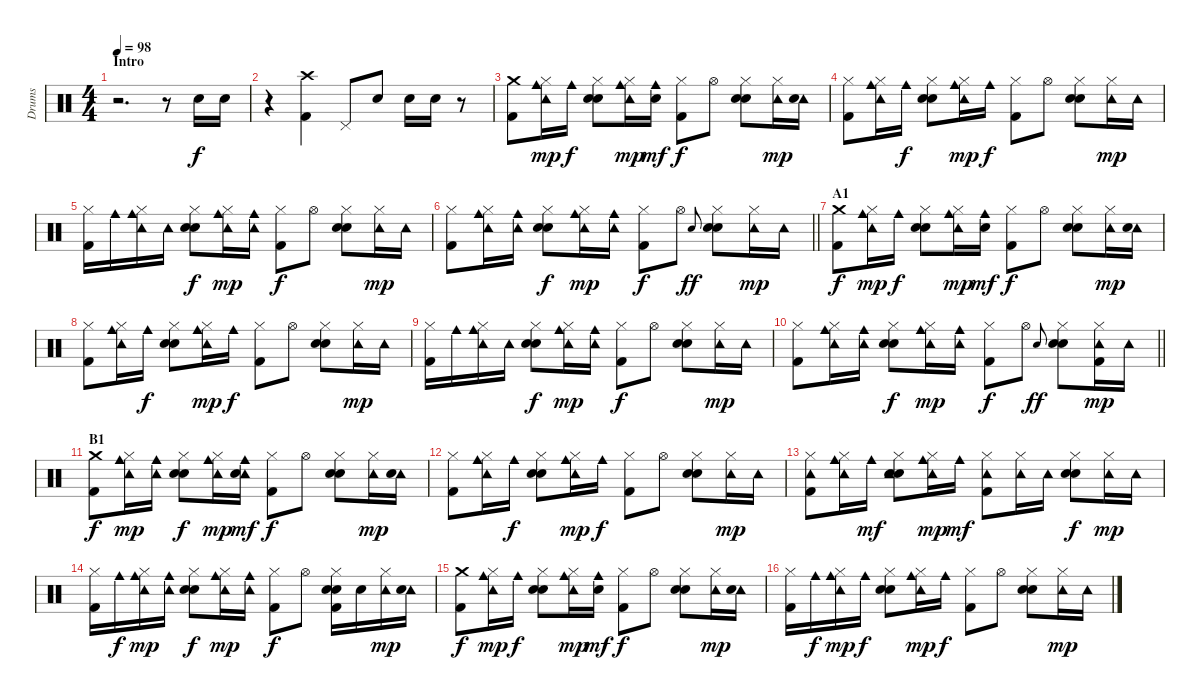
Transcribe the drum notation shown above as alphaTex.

\track ("Drums" "Drums") {instrument percussion}
\staff {score}
\articulation defaults
\ts (4 4)
\section ("" "Intro")
\tempo 98
\clef neutral
\ks c
r.2{d dy f} r.8 "Electric Snare (hit)".16 "Electric Snare (hit)".16 |
r.4 ("Crash high (hit)" "Kick (hit) 2").4 "Pedal Hi-Hat (hit)".8 "Electric Snare (hit)".8 "Electric Snare (hit)".16 "Electric Snare (hit)".16 r.8 |
("Crash medium (hit)" "Kick (hit) 2").8 ("Cowbell medium (hit)" "Tambourine (hit)" "Hi-Hat (closed)").16{dy mp} "Cowbell medium (hit)".16{dy f} ("Hand Clap (hit)" "Hi-Hat (closed)" "Electric Snare (hit)").8 ("Cowbell medium (hit)" "Tambourine (hit)" "Hi-Hat (closed)").16{dy mp} ("Cowbell medium (hit)" "Electric Snare (hit)").16{dy mf} ("Hi-Hat (closed)" "Kick (hit) 2").8{dy f} "Hi-Hat (open)".8 ("Hand Clap (hit)" "Hi-Hat (closed)" "Electric Snare (hit)").8 ("Tambourine (hit)" "Hi-Hat (closed)").16{dy mp} ("Tambourine (hit)" "Electric Snare (hit)").16 |
("Hi-Hat (closed)" "Kick (hit) 2").8 ("Cowbell medium (hit)" "Tambourine (hit)" "Hi-Hat (closed)").16 "Cowbell medium (hit)".16{dy f} ("Hand Clap (hit)" "Hi-Hat (closed)" "Electric Snare (hit)").8 ("Cowbell medium (hit)" "Tambourine (hit)" "Hi-Hat (closed)").16{dy mp} "Cowbell medium (hit)".16{dy f} ("Hi-Hat (closed)" "Kick (hit) 2").8 "Hi-Hat (open)".8 ("Hand Clap (hit)" "Hi-Hat (closed)" "Electric Snare (hit)").8 ("Tambourine (hit)" "Hi-Hat (closed)").16{dy mp} "Tambourine (hit)".16 |
("Hi-Hat (closed)" "Kick (hit) 2").16 "Cowbell medium (hit)".16 ("Cowbell medium (hit)" "Tambourine (hit)" "Hi-Hat (closed)").16 "Tambourine (hit)".16 ("Hand Clap (hit)" "Hi-Hat (closed)" "Electric Snare (hit)").8{dy f} ("Cowbell medium (hit)" "Tambourine (hit)" "Hi-Hat (closed)").16{dy mp} ("Cowbell medium (hit)" "Tambourine (hit)").16 ("Hi-Hat (closed)" "Kick (hit) 2").8{dy f} "Hi-Hat (open)".8 ("Hand Clap (hit)" "Hi-Hat (closed)" "Electric Snare (hit)").8 ("Tambourine (hit)" "Hi-Hat (closed)").16{dy mp} "Tambourine (hit)".16 |
\barLineRight lightlight
("Hi-Hat (closed)" "Kick (hit) 2").8 ("Cowbell medium (hit)" "Tambourine (hit)" "Hi-Hat (closed)").16 ("Cowbell medium (hit)" "Tambourine (hit)").16 ("Hand Clap (hit)" "Hi-Hat (closed)" "Electric Snare (hit)").8{dy f} ("Cowbell medium (hit)" "Tambourine (hit)" "Hi-Hat (closed)").16{dy mp} ("Cowbell medium (hit)" "Tambourine (hit)").16 ("Hi-Hat (closed)" "Kick (hit) 2").8{dy f} "Hi-Hat (open)".8 "Electric Snare (hit)".8{gr onbeat dy ff} ("Hand Clap (hit)" "Hi-Hat (closed)" "Electric Snare (hit)").8 ("Tambourine (hit)" "Hi-Hat (closed)").16{dy mp} "Tambourine (hit)".16 |
\section ("" "A1")
("Crash medium (hit)" "Kick (hit) 2").8{dy f} ("Cowbell medium (hit)" "Tambourine (hit)" "Hi-Hat (closed)").16{dy mp} "Cowbell medium (hit)".16{dy f} ("Hand Clap (hit)" "Hi-Hat (closed)" "Electric Snare (hit)").8 ("Cowbell medium (hit)" "Tambourine (hit)" "Hi-Hat (closed)").16{dy mp} ("Cowbell medium (hit)" "Electric Snare (hit)").16{dy mf} ("Hi-Hat (closed)" "Kick (hit) 2").8{dy f} "Hi-Hat (open)".8 ("Hand Clap (hit)" "Hi-Hat (closed)" "Electric Snare (hit)").8 ("Tambourine (hit)" "Hi-Hat (closed)").16{dy mp} ("Tambourine (hit)" "Electric Snare (hit)").16 |
("Hi-Hat (closed)" "Kick (hit) 2").8 ("Cowbell medium (hit)" "Tambourine (hit)" "Hi-Hat (closed)").16 "Cowbell medium (hit)".16{dy f} ("Hand Clap (hit)" "Hi-Hat (closed)" "Electric Snare (hit)").8 ("Cowbell medium (hit)" "Tambourine (hit)" "Hi-Hat (closed)").16{dy mp} "Cowbell medium (hit)".16{dy f} ("Hi-Hat (closed)" "Kick (hit) 2").8 "Hi-Hat (open)".8 ("Hand Clap (hit)" "Hi-Hat (closed)" "Electric Snare (hit)").8 ("Tambourine (hit)" "Hi-Hat (closed)").16{dy mp} "Tambourine (hit)".16 |
("Hi-Hat (closed)" "Kick (hit) 2").16 "Cowbell medium (hit)".16 ("Cowbell medium (hit)" "Tambourine (hit)" "Hi-Hat (closed)").16 "Tambourine (hit)".16 ("Hand Clap (hit)" "Hi-Hat (closed)" "Electric Snare (hit)").8{dy f} ("Cowbell medium (hit)" "Tambourine (hit)" "Hi-Hat (closed)").16{dy mp} ("Cowbell medium (hit)" "Tambourine (hit)").16 ("Hi-Hat (closed)" "Kick (hit) 2").8{dy f} "Hi-Hat (open)".8 ("Hand Clap (hit)" "Hi-Hat (closed)" "Electric Snare (hit)").8 ("Tambourine (hit)" "Hi-Hat (closed)").16{dy mp} "Tambourine (hit)".16 |
\barLineRight lightlight
("Hi-Hat (closed)" "Kick (hit) 2").8 ("Cowbell medium (hit)" "Tambourine (hit)" "Hi-Hat (closed)").16 ("Cowbell medium (hit)" "Tambourine (hit)").16 ("Hand Clap (hit)" "Hi-Hat (closed)" "Electric Snare (hit)").8{dy f} ("Cowbell medium (hit)" "Tambourine (hit)" "Hi-Hat (closed)").16{dy mp} ("Cowbell medium (hit)" "Tambourine (hit)").16 ("Hi-Hat (closed)" "Kick (hit) 2").8{dy f} "Hi-Hat (open)".8 "Electric Snare (hit)".8{gr onbeat dy ff} ("Hand Clap (hit)" "Hi-Hat (closed)" "Electric Snare (hit)").8 ("Tambourine (hit)" "Hi-Hat (closed)" "Kick (hit) 2").16{dy mp} "Tambourine (hit)".16 |
\section ("" "B1")
("Crash medium (hit)" "Kick (hit) 2").8{dy f} ("Cowbell medium (hit)" "Tambourine (hit)" "Hi-Hat (closed)").16{dy mp} ("Cowbell medium (hit)" "Tambourine (hit)").16 ("Hand Clap (hit)" "Hi-Hat (closed)" "Electric Snare (hit)").8{dy f} ("Cowbell medium (hit)" "Tambourine (hit)" "Hi-Hat (closed)").16{dy mp} ("Cowbell medium (hit)" "Tambourine (hit)" "Electric Snare (hit)").16{dy mf} ("Hi-Hat (closed)" "Kick (hit) 2").8{dy f} "Hi-Hat (open)".8 ("Hand Clap (hit)" "Hi-Hat (closed)" "Electric Snare (hit)").8 ("Tambourine (hit)" "Hi-Hat (closed)").16{dy mp} ("Tambourine (hit)" "Electric Snare (hit)").16 |
("Hi-Hat (closed)" "Kick (hit) 2").8 ("Cowbell medium (hit)" "Tambourine (hit)" "Hi-Hat (closed)").16 "Cowbell medium (hit)".16{dy f} ("Hand Clap (hit)" "Hi-Hat (closed)" "Electric Snare (hit)").8 ("Cowbell medium (hit)" "Tambourine (hit)" "Hi-Hat (closed)").16{dy mp} "Cowbell medium (hit)".16{dy f} ("Hi-Hat (closed)" "Kick (hit) 2").8 "Hi-Hat (open)".8 ("Hand Clap (hit)" "Hi-Hat (closed)" "Electric Snare (hit)").8 ("Tambourine (hit)" "Hi-Hat (closed)").16{dy mp} "Tambourine (hit)".16 |
("Tambourine (hit)" "Hi-Hat (closed)" "Kick (hit) 2").8 ("Cowbell medium (hit)" "Tambourine (hit)" "Hi-Hat (closed)").16 "Cowbell medium (hit)".16{dy mf} ("Hand Clap (hit)" "Tambourine (hit)" "Hi-Hat (closed)" "Electric Snare (hit)").8 ("Cowbell medium (hit)" "Tambourine (hit)" "Hi-Hat (closed)").16{dy mp} "Cowbell medium (hit)".16{dy mf} ("Tambourine (hit)" "Hi-Hat (closed)" "Kick (hit) 2").8 ("Tambourine (hit)" "Hi-Hat (closed)").16 "Tambourine (hit)".16 ("Hand Clap (hit)" "Hi-Hat (closed)" "Electric Snare (hit)").8{dy f} ("Tambourine (hit)" "Hi-Hat (closed)").16{dy mp} "Tambourine (hit)".16 |
("Hi-Hat (closed)" "Kick (hit) 2").16 "Cowbell medium (hit)".16{dy f} ("Cowbell medium (hit)" "Tambourine (hit)" "Hi-Hat (closed)").16{dy mp} ("Cowbell medium (hit)" "Tambourine (hit)").16 ("Hand Clap (hit)" "Hi-Hat (closed)" "Electric Snare (hit)").8{dy f} ("Cowbell medium (hit)" "Tambourine (hit)" "Hi-Hat (closed)").16{dy mp} ("Cowbell medium (hit)" "Tambourine (hit)").16 ("Hi-Hat (closed)" "Kick (hit) 2").8{dy f} "Hi-Hat (open)".8 ("Hand Clap (hit)" "Hi-Hat (closed)" "Electric Snare (hit)" "Kick (hit) 2").16 "Electric Snare (hit)".16 ("Tambourine (hit)" "Hi-Hat (closed)").16{dy mp} ("Tambourine (hit)" "Electric Snare (hit)").16 |
("Crash medium (hit)" "Kick (hit) 2").8{dy f} ("Cowbell medium (hit)" "Tambourine (hit)" "Hi-Hat (closed)").16{dy mp} "Cowbell medium (hit)".16{dy f} ("Hand Clap (hit)" "Hi-Hat (closed)" "Electric Snare (hit)").8 ("Cowbell medium (hit)" "Tambourine (hit)" "Hi-Hat (closed)").16{dy mp} ("Cowbell medium (hit)" "Electric Snare (hit)").16{dy mf} ("Hi-Hat (closed)" "Kick (hit) 2").8{dy f} "Hi-Hat (open)".8 ("Hand Clap (hit)" "Hi-Hat (closed)" "Electric Snare (hit)").8 ("Tambourine (hit)" "Hi-Hat (closed)").16{dy mp} ("Tambourine (hit)" "Electric Snare (hit)").16 |
("Hi-Hat (closed)" "Kick (hit) 2").16 "Cowbell medium (hit)".16{dy f} ("Cowbell medium (hit)" "Tambourine (hit)" "Hi-Hat (closed)").16{dy mp} "Cowbell medium (hit)".16{dy f} ("Hand Clap (hit)" "Hi-Hat (closed)" "Electric Snare (hit)").8 ("Cowbell medium (hit)" "Tambourine (hit)" "Hi-Hat (closed)").16{dy mp} "Cowbell medium (hit)".16{dy f} ("Hi-Hat (closed)" "Kick (hit) 2").8 "Hi-Hat (open)".8 ("Hand Clap (hit)" "Hi-Hat (closed)" "Electric Snare (hit)").8 ("Tambourine (hit)" "Hi-Hat (closed)").16{dy mp} "Tambourine (hit)".16
